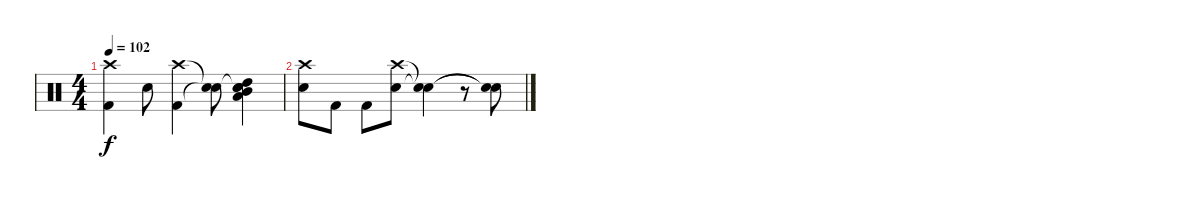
\track "" {instrument percussion}
\staff {score}
\articulation defaults
\ts (4 4)
\tempo 102
\clef neutral
\ks c
("Crash high (hit)" "Kick (hit) 2").4{dy f} "Snare (hit) 2".8 ("Crash high (hit)" "Kick (hit) 2").4 ("Snare (hit)"{t} "Snare (hit)"{t}).8 ("Snare (hit)"{t} "High Tom (hit)" "Mid Tom (hit)" "Low Tom (hit)" "Snare (hit)").4 |
("Crash high (hit)" "Snare (hit) 2").8 "Kick (hit) 2".8 "Kick (hit) 2".8 ("Crash high (hit)" "Snare (hit) 2").8 ("Snare (hit)"{t} "Snare (hit)"{t}).4 r.8 ("Snare (hit)"{t} "Snare (hit)"{t}).8
